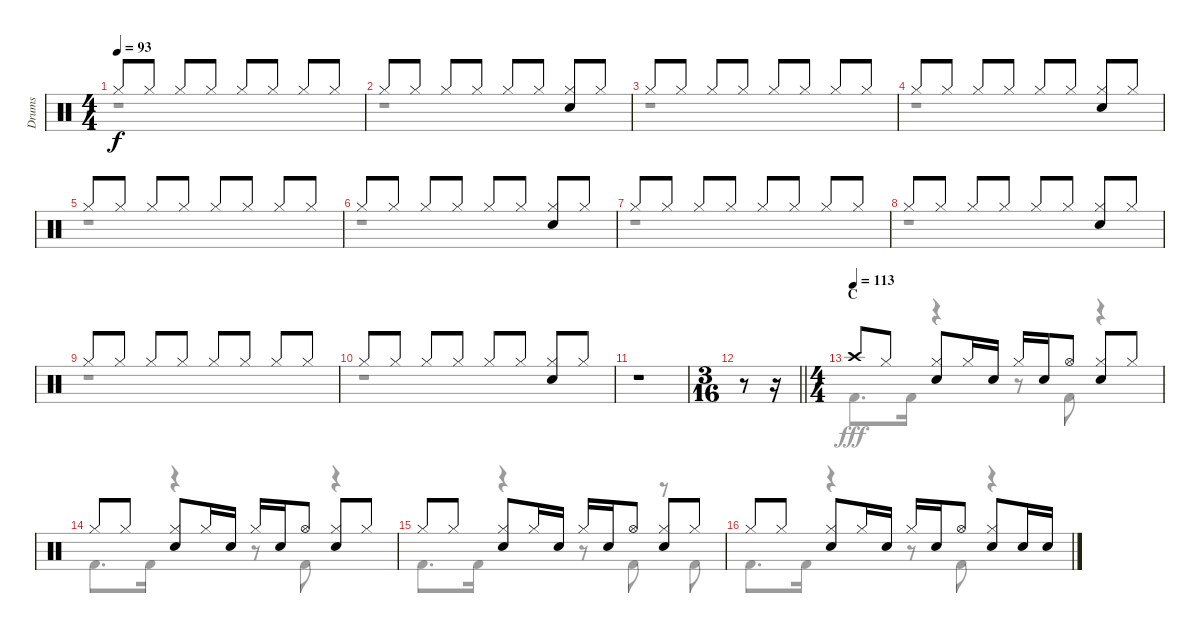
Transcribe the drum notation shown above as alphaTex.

\track ("Drums" "Drums") {instrument percussion}
\staff {score}
\articulation defaults
\voice
\ts (4 4)
\tempo 93
\clef neutral
\ks c "Hi-Hat (closed)".8{dy f} "Hi-Hat (closed)".8 "Hi-Hat (closed)".8 "Hi-Hat (closed)".8 "Hi-Hat (closed)".8 "Hi-Hat (closed)".8 "Hi-Hat (closed)".8 "Hi-Hat (closed)".8
|
"Hi-Hat (closed)".8 "Hi-Hat (closed)".8 "Hi-Hat (closed)".8 "Hi-Hat (closed)".8 "Hi-Hat (closed)".8 "Hi-Hat (closed)".8 ("Hi-Hat (closed)" "Snare (hit) 2").8 "Hi-Hat (closed)".8 |
"Hi-Hat (closed)".8 "Hi-Hat (closed)".8 "Hi-Hat (closed)".8 "Hi-Hat (closed)".8 "Hi-Hat (closed)".8 "Hi-Hat (closed)".8 "Hi-Hat (closed)".8 "Hi-Hat (closed)".8 |
"Hi-Hat (closed)".8 "Hi-Hat (closed)".8 "Hi-Hat (closed)".8 "Hi-Hat (closed)".8 "Hi-Hat (closed)".8 "Hi-Hat (closed)".8 ("Hi-Hat (closed)" "Snare (hit) 2").8 "Hi-Hat (closed)".8 |
"Hi-Hat (closed)".8 "Hi-Hat (closed)".8 "Hi-Hat (closed)".8 "Hi-Hat (closed)".8 "Hi-Hat (closed)".8 "Hi-Hat (closed)".8 "Hi-Hat (closed)".8 "Hi-Hat (closed)".8 |
"Hi-Hat (closed)".8 "Hi-Hat (closed)".8 "Hi-Hat (closed)".8 "Hi-Hat (closed)".8 "Hi-Hat (closed)".8 "Hi-Hat (closed)".8 ("Hi-Hat (closed)" "Snare (hit) 2").8 "Hi-Hat (closed)".8 |
"Hi-Hat (closed)".8 "Hi-Hat (closed)".8 "Hi-Hat (closed)".8 "Hi-Hat (closed)".8 "Hi-Hat (closed)".8 "Hi-Hat (closed)".8 "Hi-Hat (closed)".8 "Hi-Hat (closed)".8 |
"Hi-Hat (closed)".8 "Hi-Hat (closed)".8 "Hi-Hat (closed)".8 "Hi-Hat (closed)".8 "Hi-Hat (closed)".8 "Hi-Hat (closed)".8 ("Hi-Hat (closed)" "Snare (hit) 2").8 "Hi-Hat (closed)".8 |
"Hi-Hat (closed)".8 "Hi-Hat (closed)".8 "Hi-Hat (closed)".8 "Hi-Hat (closed)".8 "Hi-Hat (closed)".8 "Hi-Hat (closed)".8 "Hi-Hat (closed)".8 "Hi-Hat (closed)".8 |
"Hi-Hat (closed)".8 "Hi-Hat (closed)".8 "Hi-Hat (closed)".8 "Hi-Hat (closed)".8 "Hi-Hat (closed)".8 "Hi-Hat (closed)".8 ("Hi-Hat (closed)" "Snare (hit) 2").8 "Hi-Hat (closed)".8 |
r.1 |
\ts (3 16)
\barLineRight lightlight
r.8 r.16 |
\ts (4 4)
\section ("" "C")
\tempo (113)
"Crash high (hit)".8 "Hi-Hat (closed)".8 ("Hi-Hat (closed)" "Snare (hit) 2").8 "Hi-Hat (closed)".16 "Snare (hit) 2".16 "Hi-Hat (closed)".16 "Snare (hit) 2".16 "Hi-Hat (open)".8 ("Hi-Hat (closed)" "Snare (hit) 2").8 "Hi-Hat (closed)".8 |
"Hi-Hat (closed)".8 "Hi-Hat (closed)".8 ("Hi-Hat (closed)" "Snare (hit) 2").8 "Hi-Hat (closed)".16 "Snare (hit) 2".16 "Hi-Hat (closed)".16 "Snare (hit) 2".16 "Hi-Hat (open)".8 ("Hi-Hat (closed)" "Snare (hit) 2").8 "Hi-Hat (closed)".8 |
"Hi-Hat (closed)".8 "Hi-Hat (closed)".8 ("Hi-Hat (closed)" "Snare (hit) 2").8 "Hi-Hat (closed)".16 "Snare (hit) 2".16 "Hi-Hat (closed)".16 "Snare (hit) 2".16 "Hi-Hat (open)".8 ("Hi-Hat (closed)" "Snare (hit) 2").8 "Hi-Hat (closed)".8 |
"Hi-Hat (closed)".8 "Hi-Hat (closed)".8 ("Hi-Hat (closed)" "Snare (hit) 2").8 "Hi-Hat (closed)".16 "Snare (hit) 2".16 "Hi-Hat (closed)".16 "Snare (hit) 2".16 "Hi-Hat (open)".8 ("Hi-Hat (closed)" "Snare (hit) 2").8 "Snare (hit) 2".16 "Snare (hit) 2".16
\voice
\clef neutral
\ottava regular
\simile none
\ks c
r.1{dy fff} |
r.1 |
r.1 |
r.1 |
r.1 |
r.1 |
r.1 |
r.1 |
r.1 |
r.1 |
r.1 |
\barLineRight lightlight
r.8 r.16 |
"Kick (hit) 2".8{d} "Kick (hit) 2".16 r.4 r.8 "Kick (hit) 2".8 r.4 |
"Kick (hit) 2".8{d} "Kick (hit) 2".16 r.4 r.8 "Kick (hit) 2".8 r.4 |
"Kick (hit) 2".8{d} "Kick (hit) 2".16 r.4 r.8 "Kick (hit) 2".8 r.8 "Kick (hit) 2".8 |
"Kick (hit) 2".8{d} "Kick (hit) 2".16 r.4 r.8 "Kick (hit) 2".8 r.4
